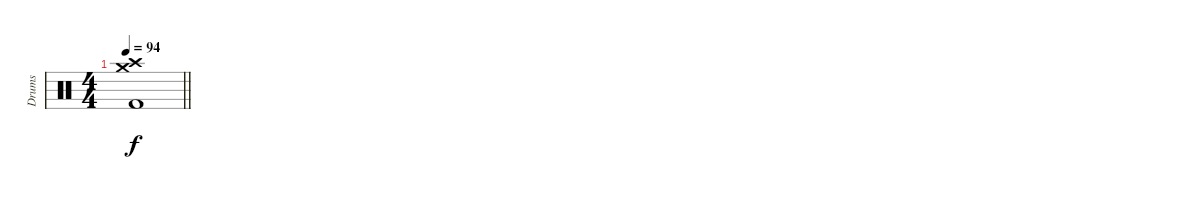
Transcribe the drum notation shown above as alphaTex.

\track ("Drums" "Drums") {instrument percussion}
\staff {score}
\articulation defaults
\ts (4 4)
\tempo 94
\clef neutral
\barLineRight lightlight
\ks c
("Crash high (hit)" "Crash medium (hit)" "Kick (hit) 2").1{dy f}
